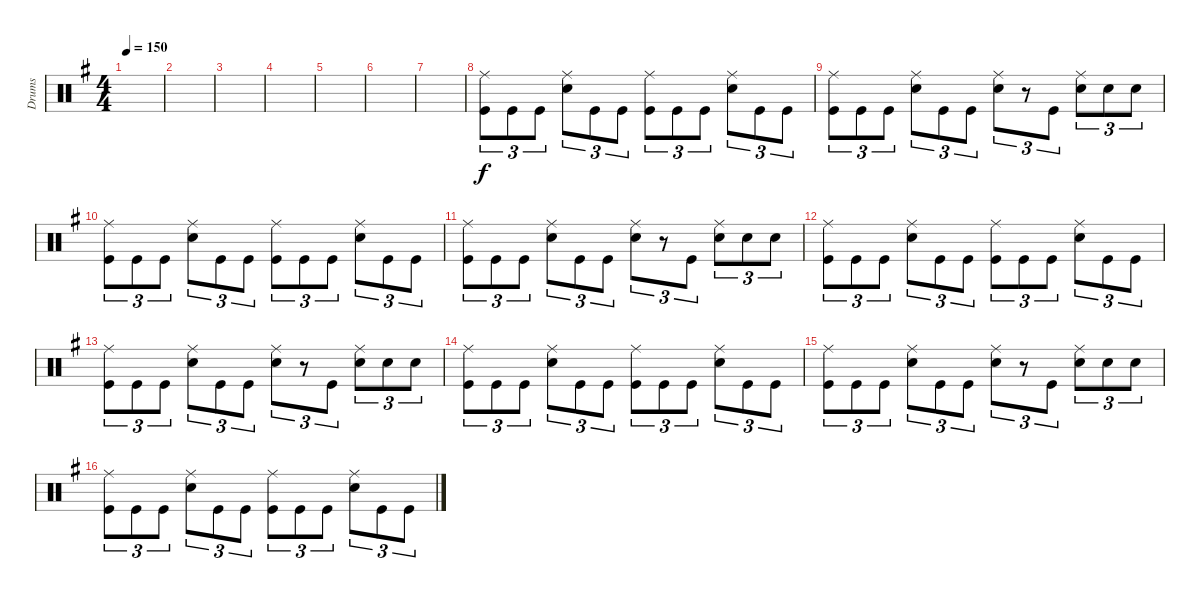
\track ("Drums" "Drums") {instrument percussion}
\staff {score}
\articulation defaults
\ts (4 4)
\tempo 150
\clef neutral
\ks g
|
|
|
|
|
|
|
("Ride (middle)" "Kick (hit)").8{tu (3 2)} "Kick (hit)".8{tu (3 2)} "Kick (hit)".8{tu (3 2)} ("Ride (middle)" "Snare (hit) 2").8{tu (3 2)} "Kick (hit)".8{tu (3 2)} "Kick (hit)".8{tu (3 2)} ("Ride (middle)" "Kick (hit)").8{tu (3 2)} "Kick (hit)".8{tu (3 2)} "Kick (hit)".8{tu (3 2)} ("Ride (middle)" "Snare (hit) 2").8{tu (3 2)} "Kick (hit)".8{tu (3 2)} "Kick (hit)".8{tu (3 2)} |
("Ride (middle)" "Kick (hit)").8{tu (3 2)} "Kick (hit)".8{tu (3 2)} "Kick (hit)".8{tu (3 2)} ("Ride (middle)" "Snare (hit) 2").8{tu (3 2)} "Kick (hit)".8{tu (3 2)} "Kick (hit)".8{tu (3 2)} ("Ride (middle)" "Snare (hit) 2").8{tu (3 2)} r.8{tu (3 2)} "Kick (hit)".8{tu (3 2)} ("Ride (middle)" "Snare (hit) 2").8{tu (3 2)} "Snare (hit) 2".8{tu (3 2)} "Snare (hit) 2".8{tu (3 2)} |
("Ride (middle)" "Kick (hit)").8{tu (3 2)} "Kick (hit)".8{tu (3 2)} "Kick (hit)".8{tu (3 2)} ("Ride (middle)" "Snare (hit) 2").8{tu (3 2)} "Kick (hit)".8{tu (3 2)} "Kick (hit)".8{tu (3 2)} ("Ride (middle)" "Kick (hit)").8{tu (3 2)} "Kick (hit)".8{tu (3 2)} "Kick (hit)".8{tu (3 2)} ("Ride (middle)" "Snare (hit) 2").8{tu (3 2)} "Kick (hit)".8{tu (3 2)} "Kick (hit)".8{tu (3 2)} |
("Ride (middle)" "Kick (hit)").8{tu (3 2)} "Kick (hit)".8{tu (3 2)} "Kick (hit)".8{tu (3 2)} ("Ride (middle)" "Snare (hit) 2").8{tu (3 2)} "Kick (hit)".8{tu (3 2)} "Kick (hit)".8{tu (3 2)} ("Ride (middle)" "Snare (hit) 2").8{tu (3 2)} r.8{tu (3 2)} "Kick (hit)".8{tu (3 2)} ("Ride (middle)" "Snare (hit) 2").8{tu (3 2)} "Snare (hit) 2".8{tu (3 2)} "Snare (hit) 2".8{tu (3 2)} |
("Ride (middle)" "Kick (hit)").8{tu (3 2)} "Kick (hit)".8{tu (3 2)} "Kick (hit)".8{tu (3 2)} ("Ride (middle)" "Snare (hit) 2").8{tu (3 2)} "Kick (hit)".8{tu (3 2)} "Kick (hit)".8{tu (3 2)} ("Ride (middle)" "Kick (hit)").8{tu (3 2)} "Kick (hit)".8{tu (3 2)} "Kick (hit)".8{tu (3 2)} ("Ride (middle)" "Snare (hit) 2").8{tu (3 2)} "Kick (hit)".8{tu (3 2)} "Kick (hit)".8{tu (3 2)} |
("Ride (middle)" "Kick (hit)").8{tu (3 2)} "Kick (hit)".8{tu (3 2)} "Kick (hit)".8{tu (3 2)} ("Ride (middle)" "Snare (hit) 2").8{tu (3 2)} "Kick (hit)".8{tu (3 2)} "Kick (hit)".8{tu (3 2)} ("Ride (middle)" "Snare (hit) 2").8{tu (3 2)} r.8{tu (3 2)} "Kick (hit)".8{tu (3 2)} ("Ride (middle)" "Snare (hit) 2").8{tu (3 2)} "Snare (hit) 2".8{tu (3 2)} "Snare (hit) 2".8{tu (3 2)} |
("Ride (middle)" "Kick (hit)").8{tu (3 2)} "Kick (hit)".8{tu (3 2)} "Kick (hit)".8{tu (3 2)} ("Ride (middle)" "Snare (hit) 2").8{tu (3 2)} "Kick (hit)".8{tu (3 2)} "Kick (hit)".8{tu (3 2)} ("Ride (middle)" "Kick (hit)").8{tu (3 2)} "Kick (hit)".8{tu (3 2)} "Kick (hit)".8{tu (3 2)} ("Ride (middle)" "Snare (hit) 2").8{tu (3 2)} "Kick (hit)".8{tu (3 2)} "Kick (hit)".8{tu (3 2)} |
("Ride (middle)" "Kick (hit)").8{tu (3 2)} "Kick (hit)".8{tu (3 2)} "Kick (hit)".8{tu (3 2)} ("Ride (middle)" "Snare (hit) 2").8{tu (3 2)} "Kick (hit)".8{tu (3 2)} "Kick (hit)".8{tu (3 2)} ("Ride (middle)" "Snare (hit) 2").8{tu (3 2)} r.8{tu (3 2)} "Kick (hit)".8{tu (3 2)} ("Ride (middle)" "Snare (hit) 2").8{tu (3 2)} "Snare (hit) 2".8{tu (3 2)} "Snare (hit) 2".8{tu (3 2)} |
("Ride (middle)" "Kick (hit)").8{tu (3 2)} "Kick (hit)".8{tu (3 2)} "Kick (hit)".8{tu (3 2)} ("Ride (middle)" "Snare (hit) 2").8{tu (3 2)} "Kick (hit)".8{tu (3 2)} "Kick (hit)".8{tu (3 2)} ("Ride (middle)" "Kick (hit)").8{tu (3 2)} "Kick (hit)".8{tu (3 2)} "Kick (hit)".8{tu (3 2)} ("Ride (middle)" "Snare (hit) 2").8{tu (3 2)} "Kick (hit)".8{tu (3 2)} "Kick (hit)".8{tu (3 2)}
